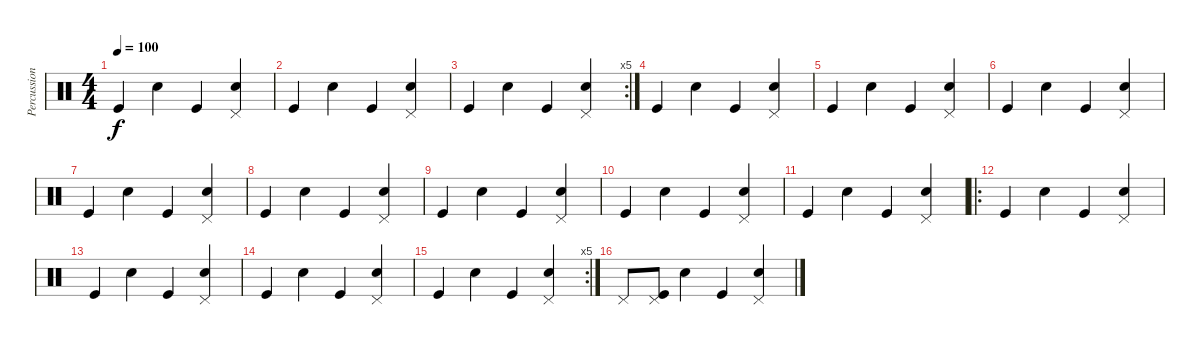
\track ("Percussion" "Percussion") {instrument percussion}
\staff {score}
\articulation defaults
\ts (4 4)
\tempo 100
\clef neutral
\ks c "Kick (hit)".4{dy f} "Snare (hit) 2".4 "Kick (hit)".4
("Pedal Hi-Hat (hit)" "Snare (hit) 2").4 |
"Kick (hit)".4 "Snare (hit) 2".4 "Kick (hit)".4 ("Pedal Hi-Hat (hit)" "Snare (hit) 2").4 |
\rc 5 "Kick (hit)".4 "Snare (hit) 2".4 "Kick (hit)".4
("Pedal Hi-Hat (hit)" "Snare (hit) 2").4 |
"Kick (hit)".4 "Snare (hit) 2".4 "Kick (hit)".4 ("Pedal Hi-Hat (hit)" "Snare (hit) 2").4 |
"Kick (hit)".4 "Snare (hit) 2".4 "Kick (hit)".4 ("Pedal Hi-Hat (hit)" "Snare (hit) 2").4 |
"Kick (hit)".4 "Snare (hit) 2".4 "Kick (hit)".4 ("Pedal Hi-Hat (hit)" "Snare (hit) 2").4 |
"Kick (hit)".4 "Snare (hit) 2".4 "Kick (hit)".4 ("Pedal Hi-Hat (hit)" "Snare (hit) 2").4 |
"Kick (hit)".4 "Snare (hit) 2".4 "Kick (hit)".4 ("Pedal Hi-Hat (hit)" "Snare (hit) 2").4 |
"Kick (hit)".4 "Snare (hit) 2".4 "Kick (hit)".4 ("Pedal Hi-Hat (hit)" "Snare (hit) 2").4 |
"Kick (hit)".4 "Snare (hit) 2".4 "Kick (hit)".4 ("Pedal Hi-Hat (hit)" "Snare (hit) 2").4 |
"Kick (hit)".4 "Snare (hit) 2".4 "Kick (hit)".4 ("Pedal Hi-Hat (hit)" "Snare (hit) 2").4 |
\ro "Kick (hit)".4 "Snare (hit) 2".4 "Kick (hit)".4
("Pedal Hi-Hat (hit)" "Snare (hit) 2").4 |
"Kick (hit)".4 "Snare (hit) 2".4 "Kick (hit)".4 ("Pedal Hi-Hat (hit)" "Snare (hit) 2").4 |
"Kick (hit)".4 "Snare (hit) 2".4 "Kick (hit)".4 ("Pedal Hi-Hat (hit)" "Snare (hit) 2").4 |
\rc 5 "Kick (hit)".4 "Snare (hit) 2".4 "Kick (hit)".4
("Pedal Hi-Hat (hit)" "Snare (hit) 2").4 |
"Pedal Hi-Hat (hit)".8 ("Pedal Hi-Hat (hit)" "Kick (hit)").8 "Snare (hit) 2".4 "Kick (hit)".4 ("Pedal Hi-Hat (hit)" "Snare (hit) 2").4
